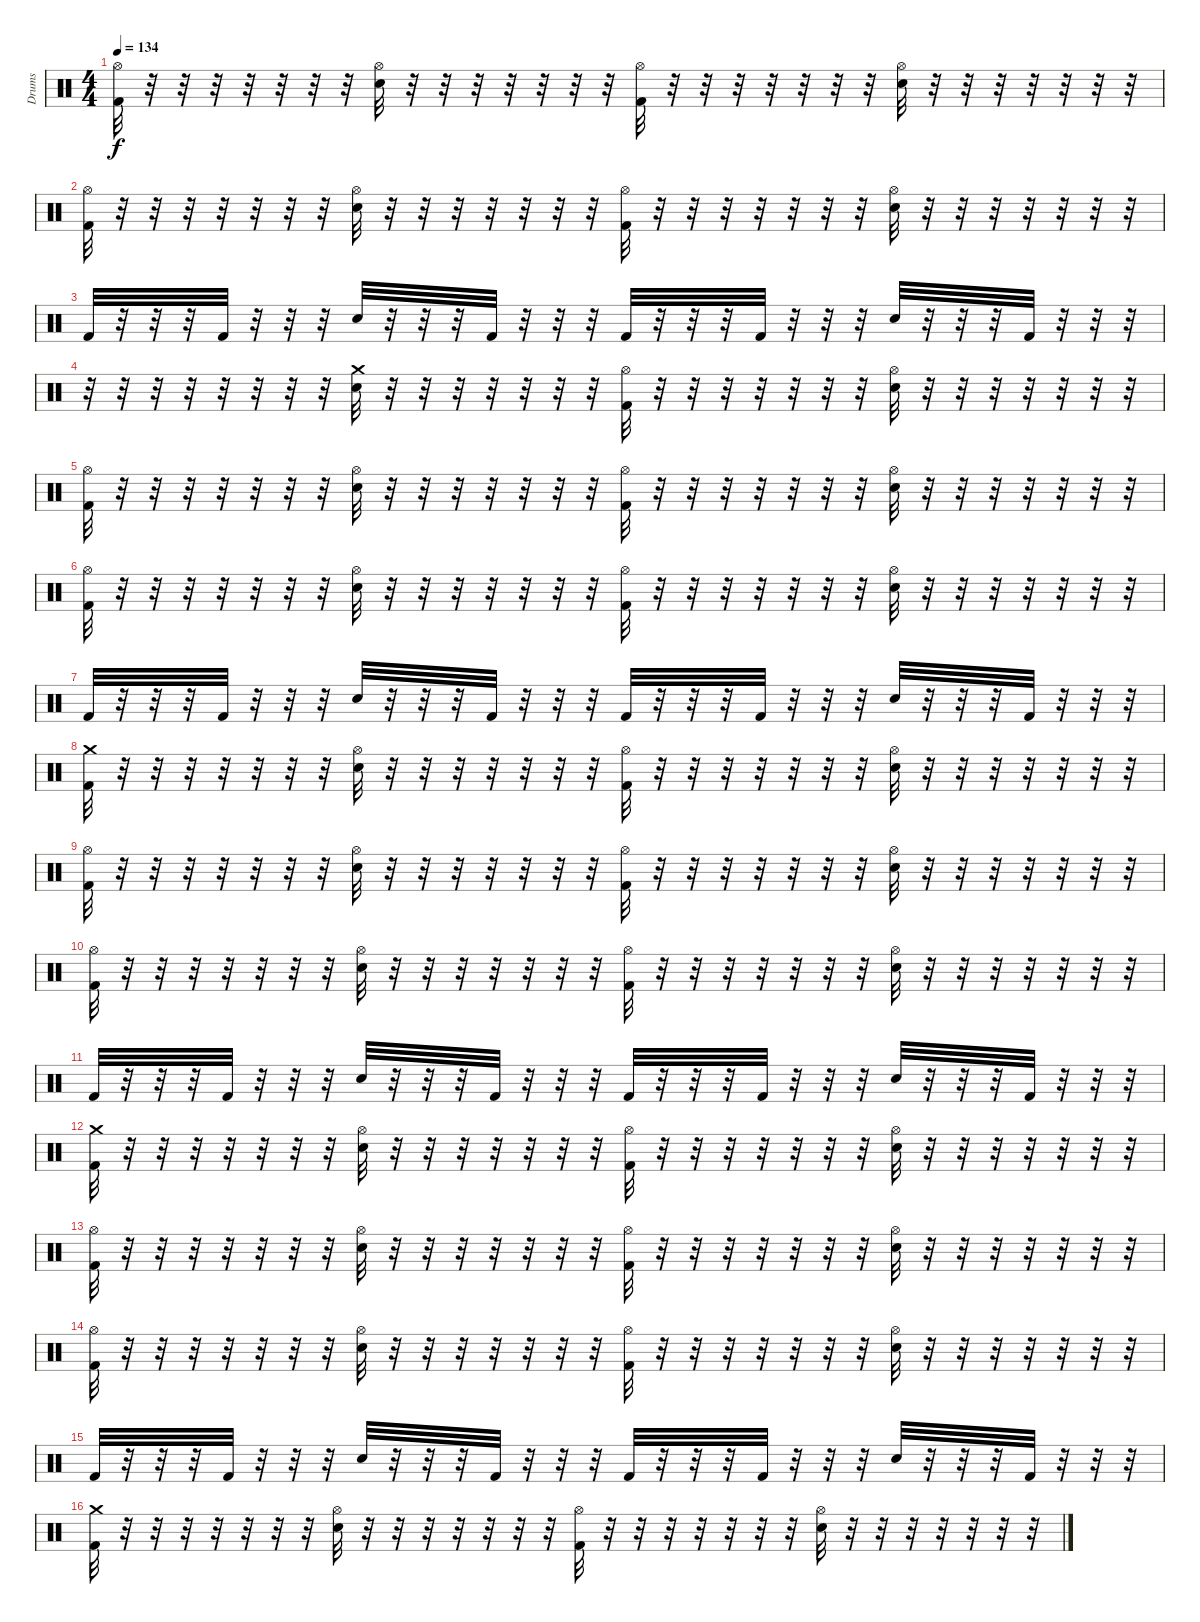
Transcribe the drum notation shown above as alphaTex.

\track ("Drums" "Drums") {instrument percussion}
\staff {score}
\articulation defaults
\ts (4 4)
\tempo 134
\clef neutral
\ks c
("Kick (hit) 2" "Hi-Hat (open)").32{dy f} r.32 r.32 r.32 r.32 r.32 r.32 r.32 ("Electric Snare (hit)" "Hi-Hat (open)").32 r.32 r.32 r.32 r.32 r.32 r.32 r.32 ("Kick (hit) 2" "Hi-Hat (open)").32 r.32 r.32 r.32 r.32 r.32 r.32 r.32 ("Electric Snare (hit)" "Hi-Hat (open)").32 r.32 r.32 r.32 r.32 r.32 r.32 r.32 |
("Kick (hit) 2" "Hi-Hat (open)").32 r.32 r.32 r.32 r.32 r.32 r.32 r.32 ("Electric Snare (hit)" "Hi-Hat (open)").32 r.32 r.32 r.32 r.32 r.32 r.32 r.32 ("Kick (hit) 2" "Hi-Hat (open)").32 r.32 r.32 r.32 r.32 r.32 r.32 r.32 ("Electric Snare (hit)" "Hi-Hat (open)").32 r.32 r.32 r.32 r.32 r.32 r.32 r.32 |
"Kick (hit) 2".32 r.32 r.32 r.32 "Kick (hit) 2".32 r.32 r.32 r.32 "Electric Snare (hit)".32 r.32 r.32 r.32 "Kick (hit) 2".32 r.32 r.32 r.32 "Kick (hit) 2".32 r.32 r.32 r.32 "Kick (hit) 2".32 r.32 r.32 r.32 "Electric Snare (hit)".32 r.32 r.32 r.32 "Kick (hit) 2".32 r.32 r.32 r.32 |
r.32 r.32 r.32 r.32 r.32 r.32 r.32 r.32 ("Electric Snare (hit)" "Crash medium (hit)").32 r.32 r.32 r.32 r.32 r.32 r.32 r.32 ("Kick (hit) 2" "Hi-Hat (open)").32 r.32 r.32 r.32 r.32 r.32 r.32 r.32 ("Electric Snare (hit)" "Hi-Hat (open)").32 r.32 r.32 r.32 r.32 r.32 r.32 r.32 |
("Kick (hit) 2" "Hi-Hat (open)").32 r.32 r.32 r.32 r.32 r.32 r.32 r.32 ("Electric Snare (hit)" "Hi-Hat (open)").32 r.32 r.32 r.32 r.32 r.32 r.32 r.32 ("Kick (hit) 2" "Hi-Hat (open)").32 r.32 r.32 r.32 r.32 r.32 r.32 r.32 ("Electric Snare (hit)" "Hi-Hat (open)").32 r.32 r.32 r.32 r.32 r.32 r.32 r.32 |
("Kick (hit) 2" "Hi-Hat (open)").32 r.32 r.32 r.32 r.32 r.32 r.32 r.32 ("Electric Snare (hit)" "Hi-Hat (open)").32 r.32 r.32 r.32 r.32 r.32 r.32 r.32 ("Kick (hit) 2" "Hi-Hat (open)").32 r.32 r.32 r.32 r.32 r.32 r.32 r.32 ("Electric Snare (hit)" "Hi-Hat (open)").32 r.32 r.32 r.32 r.32 r.32 r.32 r.32 |
"Kick (hit) 2".32 r.32 r.32 r.32 "Kick (hit) 2".32 r.32 r.32 r.32 "Electric Snare (hit)".32 r.32 r.32 r.32 "Kick (hit) 2".32 r.32 r.32 r.32 "Kick (hit) 2".32 r.32 r.32 r.32 "Kick (hit) 2".32 r.32 r.32 r.32 "Electric Snare (hit)".32 r.32 r.32 r.32 "Kick (hit) 2".32 r.32 r.32 r.32 |
("Kick (hit) 2" "Crash medium (hit)").32 r.32 r.32 r.32 r.32 r.32 r.32 r.32 ("Electric Snare (hit)" "Hi-Hat (open)").32 r.32 r.32 r.32 r.32 r.32 r.32 r.32 ("Kick (hit) 2" "Hi-Hat (open)").32 r.32 r.32 r.32 r.32 r.32 r.32 r.32 ("Electric Snare (hit)" "Hi-Hat (open)").32 r.32 r.32 r.32 r.32 r.32 r.32 r.32 |
("Kick (hit) 2" "Hi-Hat (open)").32 r.32 r.32 r.32 r.32 r.32 r.32 r.32 ("Electric Snare (hit)" "Hi-Hat (open)").32 r.32 r.32 r.32 r.32 r.32 r.32 r.32 ("Kick (hit) 2" "Hi-Hat (open)").32 r.32 r.32 r.32 r.32 r.32 r.32 r.32 ("Electric Snare (hit)" "Hi-Hat (open)").32 r.32 r.32 r.32 r.32 r.32 r.32 r.32 |
("Kick (hit) 2" "Hi-Hat (open)").32 r.32 r.32 r.32 r.32 r.32 r.32 r.32 ("Electric Snare (hit)" "Hi-Hat (open)").32 r.32 r.32 r.32 r.32 r.32 r.32 r.32 ("Kick (hit) 2" "Hi-Hat (open)").32 r.32 r.32 r.32 r.32 r.32 r.32 r.32 ("Electric Snare (hit)" "Hi-Hat (open)").32 r.32 r.32 r.32 r.32 r.32 r.32 r.32 |
"Kick (hit) 2".32 r.32 r.32 r.32 "Kick (hit) 2".32 r.32 r.32 r.32 "Electric Snare (hit)".32 r.32 r.32 r.32 "Kick (hit) 2".32 r.32 r.32 r.32 "Kick (hit) 2".32 r.32 r.32 r.32 "Kick (hit) 2".32 r.32 r.32 r.32 "Electric Snare (hit)".32 r.32 r.32 r.32 "Kick (hit) 2".32 r.32 r.32 r.32 |
("Kick (hit) 2" "Crash medium (hit)").32 r.32 r.32 r.32 r.32 r.32 r.32 r.32 ("Electric Snare (hit)" "Hi-Hat (open)").32 r.32 r.32 r.32 r.32 r.32 r.32 r.32 ("Kick (hit) 2" "Hi-Hat (open)").32 r.32 r.32 r.32 r.32 r.32 r.32 r.32 ("Electric Snare (hit)" "Hi-Hat (open)").32 r.32 r.32 r.32 r.32 r.32 r.32 r.32 |
("Kick (hit) 2" "Hi-Hat (open)").32 r.32 r.32 r.32 r.32 r.32 r.32 r.32 ("Electric Snare (hit)" "Hi-Hat (open)").32 r.32 r.32 r.32 r.32 r.32 r.32 r.32 ("Kick (hit) 2" "Hi-Hat (open)").32 r.32 r.32 r.32 r.32 r.32 r.32 r.32 ("Electric Snare (hit)" "Hi-Hat (open)").32 r.32 r.32 r.32 r.32 r.32 r.32 r.32 |
("Kick (hit) 2" "Hi-Hat (open)").32 r.32 r.32 r.32 r.32 r.32 r.32 r.32 ("Electric Snare (hit)" "Hi-Hat (open)").32 r.32 r.32 r.32 r.32 r.32 r.32 r.32 ("Kick (hit) 2" "Hi-Hat (open)").32 r.32 r.32 r.32 r.32 r.32 r.32 r.32 ("Electric Snare (hit)" "Hi-Hat (open)").32 r.32 r.32 r.32 r.32 r.32 r.32 r.32 |
"Kick (hit) 2".32 r.32 r.32 r.32 "Kick (hit) 2".32 r.32 r.32 r.32 "Electric Snare (hit)".32 r.32 r.32 r.32 "Kick (hit) 2".32 r.32 r.32 r.32 "Kick (hit) 2".32 r.32 r.32 r.32 "Kick (hit) 2".32 r.32 r.32 r.32 "Electric Snare (hit)".32 r.32 r.32 r.32 "Kick (hit) 2".32 r.32 r.32 r.32 |
("Kick (hit) 2" "Crash medium (hit)").32 r.32 r.32 r.32 r.32 r.32 r.32 r.32 ("Electric Snare (hit)" "Hi-Hat (open)").32 r.32 r.32 r.32 r.32 r.32 r.32 r.32 ("Kick (hit) 2" "Hi-Hat (open)").32 r.32 r.32 r.32 r.32 r.32 r.32 r.32 ("Electric Snare (hit)" "Hi-Hat (open)").32 r.32 r.32 r.32 r.32 r.32 r.32 r.32
